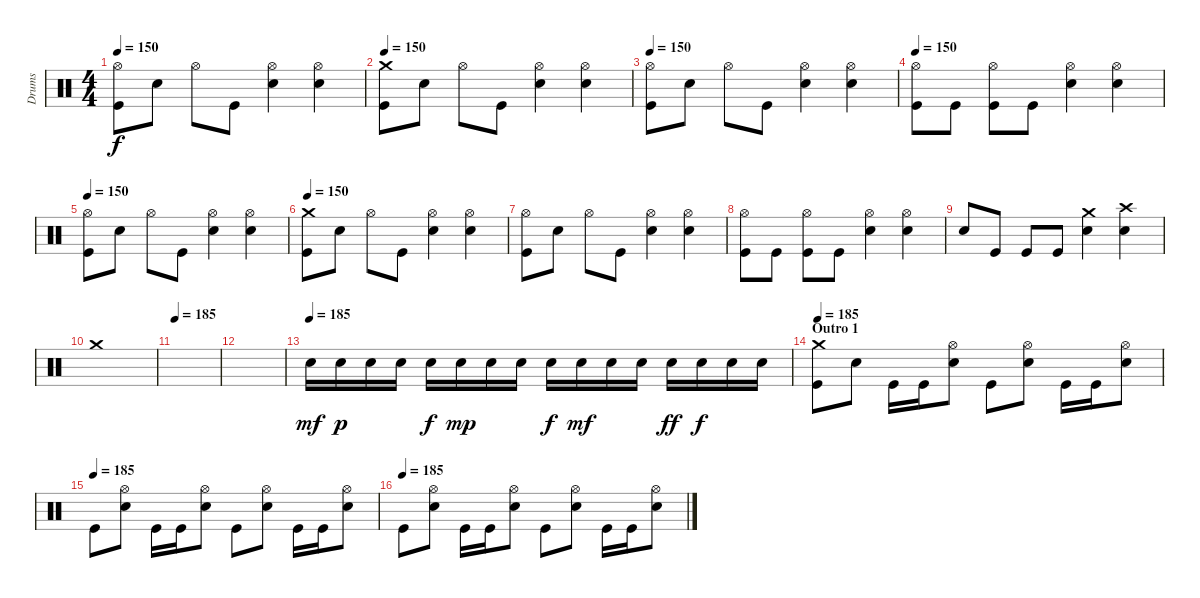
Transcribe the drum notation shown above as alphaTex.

\track ("Drums" "Drums") {instrument percussion}
\staff {score}
\articulation defaults
\ts (4 4)
\tempo 150
\clef neutral
\ks c
("Hi-Hat (open)" "Kick (hit)").8{dy f} "Electric Snare (hit)".8 "Hi-Hat (open)".8 "Kick (hit)".8 ("Hi-Hat (open)" "Electric Snare (hit)").4 ("Hi-Hat (open)" "Electric Snare (hit)").4 |
\tempo 150
("Crash medium (hit)" "Kick (hit)").8 "Electric Snare (hit)".8 "Hi-Hat (open)".8 "Kick (hit)".8 ("Hi-Hat (open)" "Electric Snare (hit)").4 ("Hi-Hat (open)" "Electric Snare (hit)").4 |
\tempo 150
("Hi-Hat (open)" "Kick (hit)").8 "Electric Snare (hit)".8 "Hi-Hat (open)".8 "Kick (hit)".8 ("Hi-Hat (open)" "Electric Snare (hit)").4 ("Hi-Hat (open)" "Electric Snare (hit)").4 |
\tempo 150
("Hi-Hat (open)" "Kick (hit)").8 "Kick (hit)".8 ("Hi-Hat (open)" "Kick (hit)").8 "Kick (hit)".8 ("Hi-Hat (open)" "Electric Snare (hit)").4 ("Hi-Hat (open)" "Electric Snare (hit)").4 |
\tempo 150
("Hi-Hat (open)" "Kick (hit)").8 "Electric Snare (hit)".8 "Hi-Hat (open)".8 "Kick (hit)".8 ("Hi-Hat (open)" "Electric Snare (hit)").4 ("Hi-Hat (open)" "Electric Snare (hit)").4 |
\tempo 150
("Crash medium (hit)" "Kick (hit)").8 "Electric Snare (hit)".8 "Hi-Hat (open)".8 "Kick (hit)".8 ("Hi-Hat (open)" "Electric Snare (hit)").4 ("Hi-Hat (open)" "Electric Snare (hit)").4 |
("Hi-Hat (open)" "Kick (hit)").8 "Electric Snare (hit)".8 "Hi-Hat (open)".8 "Kick (hit)".8 ("Hi-Hat (open)" "Electric Snare (hit)").4 ("Hi-Hat (open)" "Electric Snare (hit)").4 |
("Hi-Hat (open)" "Kick (hit)").8 "Kick (hit)".8 ("Hi-Hat (open)" "Kick (hit)").8 "Kick (hit)".8 ("Hi-Hat (open)" "Electric Snare (hit)").4 ("Hi-Hat (open)" "Electric Snare (hit)").4 |
"Electric Snare (hit)".8 "Kick (hit)".8 "Kick (hit)".8 "Kick (hit)".8 ("Crash medium (hit)" "Electric Snare (hit)").4 ("Crash high (hit)" "Electric Snare (hit)").4 |
"Crash medium (hit)".1 |
\tempo 185
|
|
\tempo (185)
"Electric Snare (hit)".16{dy mf} "Electric Snare (hit)".16{dy p} "Electric Snare (hit)".16 "Electric Snare (hit)".16 "Electric Snare (hit)".16{dy f} "Electric Snare (hit)".16{dy mp} "Electric Snare (hit)".16 "Electric Snare (hit)".16 "Electric Snare (hit)".16{dy f} "Electric Snare (hit)".16{dy mf} "Electric Snare (hit)".16 "Electric Snare (hit)".16 "Electric Snare (hit)".16{dy ff} "Electric Snare (hit)".16{dy f} "Electric Snare (hit)".16 "Electric Snare (hit)".16 |
\section ("" "Outro 1")
\tempo 185
("Crash medium (hit)" "Kick (hit)").8 "Electric Snare (hit)".8 "Kick (hit)".16 "Kick (hit)".16 ("Hi-Hat (open)" "Electric Snare (hit)").8 "Kick (hit)".8 ("Hi-Hat (open)" "Electric Snare (hit)").8 "Kick (hit)".16 "Kick (hit)".16 ("Hi-Hat (open)" "Electric Snare (hit)").8 |
\tempo (185)
"Kick (hit)".8 ("Hi-Hat (open)" "Electric Snare (hit)").8 "Kick (hit)".16 "Kick (hit)".16 ("Hi-Hat (open)" "Electric Snare (hit)").8 "Kick (hit)".8 ("Hi-Hat (open)" "Electric Snare (hit)").8 "Kick (hit)".16 "Kick (hit)".16 ("Hi-Hat (open)" "Electric Snare (hit)").8 |
\tempo (185)
"Kick (hit)".8 ("Hi-Hat (open)" "Electric Snare (hit)").8 "Kick (hit)".16 "Kick (hit)".16 ("Hi-Hat (open)" "Electric Snare (hit)").8 "Kick (hit)".8 ("Hi-Hat (open)" "Electric Snare (hit)").8 "Kick (hit)".16 "Kick (hit)".16 ("Hi-Hat (open)" "Electric Snare (hit)").8
